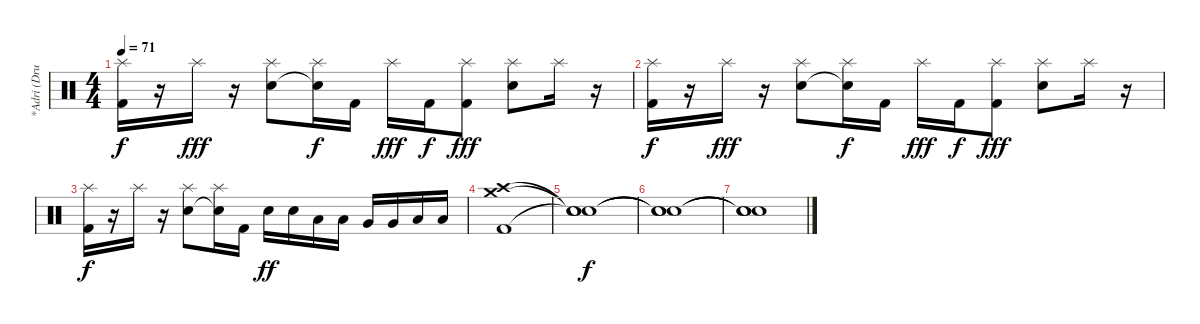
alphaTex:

\track ("*Adri (Drum)" "*Adri (Dru") {instrument percussion}
\staff {score}
\articulation defaults
\ts (4 4)
\tempo 71
\clef neutral
\ks c
("Kick (hit) 2" "Splash (hit)").16{dy f} r.16 "Splash (hit)".16{dy fff} r.16 ("Electric Snare (hit)" "Splash (hit)").8 ("Snare (hit)"{t} "Splash (hit)").16{dy f} "Kick (hit) 2".16 "Splash (hit)".16{dy fff} "Kick (hit) 2".16{dy f} ("Kick (hit) 2" "Splash (hit)").8{dy fff} ("Electric Snare (hit)" "Splash (hit)").8 "Splash (hit)".16 r.16 |
("Kick (hit) 2" "Splash (hit)").16{dy f} r.16 "Splash (hit)".16{dy fff} r.16 ("Electric Snare (hit)" "Splash (hit)").8 ("Snare (hit)"{t} "Splash (hit)").16{dy f} "Kick (hit) 2".16 "Splash (hit)".16{dy fff} "Kick (hit) 2".16{dy f} ("Kick (hit) 2" "Splash (hit)").8{dy fff} ("Electric Snare (hit)" "Splash (hit)").8 "Splash (hit)".16 r.16 |
("Kick (hit) 2" "Splash (hit)").16{dy f} r.16 "Splash (hit)".16 r.16 ("Electric Snare (hit)" "Splash (hit)").8 ("Snare (hit)"{t} "Splash (hit)").16 "Kick (hit) 2".16 "Electric Snare (hit)".16{dy ff} "Electric Snare (hit)".16 "Low Tom (hit)".16 "Low Tom (hit)".16 "Very Low Tom (hit)".16 "Very Low Tom (hit)".16 "Low Floor Tom (hit)".16 "Low Floor Tom (hit)".16 |
("Kick (hit) 2" "Crash medium (hit)" "Crash high (hit)").1 |
("Snare (hit)"{t} "Snare (hit)"{t} "Snare (hit)"{t}).1{dy f} |
("Snare (hit)"{t} "Snare (hit)"{t} "Snare (hit)"{t}).1 |
("Snare (hit)"{t} "Snare (hit)"{t} "Snare (hit)"{t}).1
